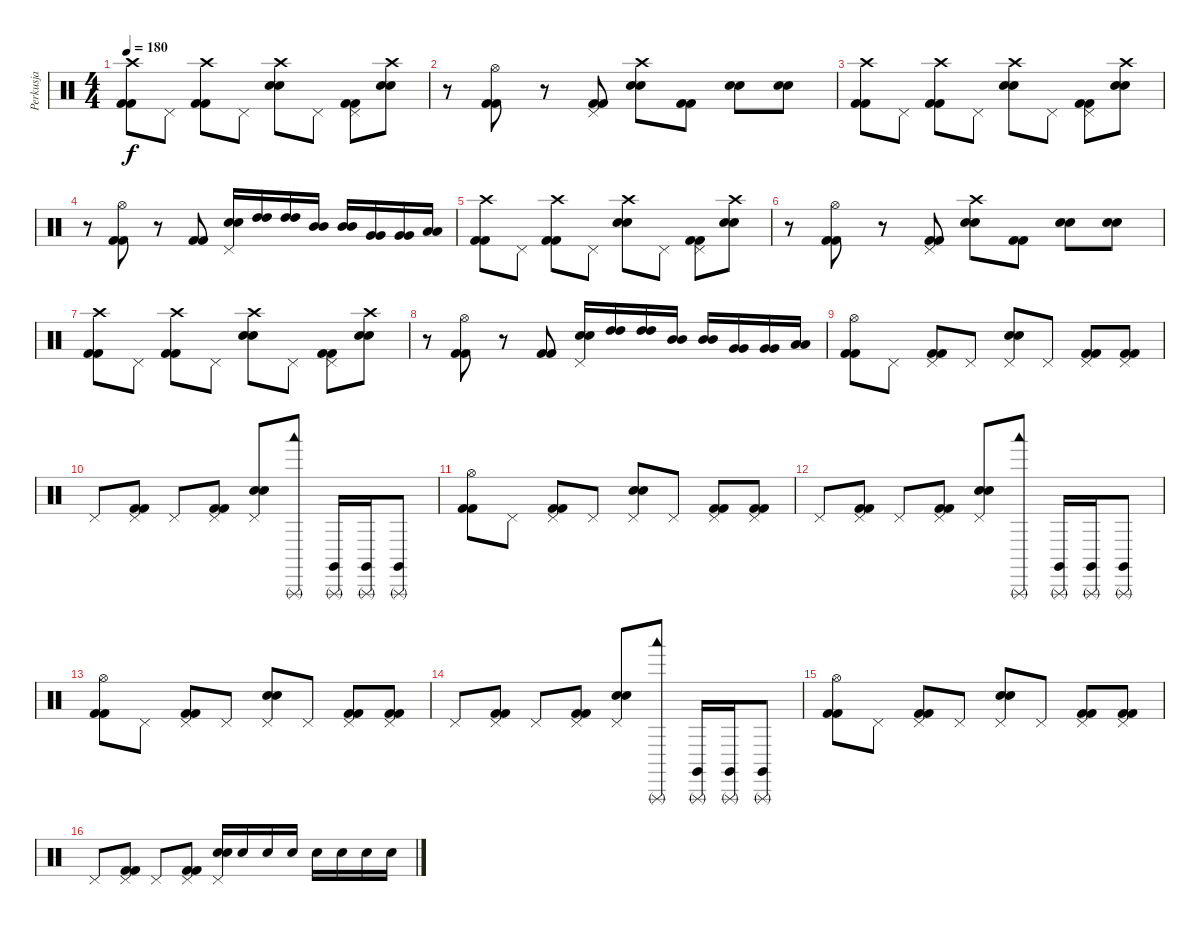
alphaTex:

\track ("Perkusja" "Perkusja") {instrument percussion}
\staff {score}
\articulation defaults
\ts (4 4)
\tempo 180
\clef neutral
\ks c
("Crash high (hit)" "Kick (hit) 2" "Kick (hit) 2").8{dy f} "Pedal Hi-Hat (hit)".8 ("Crash high (hit)" "Kick (hit) 2" "Kick (hit) 2").8 "Pedal Hi-Hat (hit)".8 ("Crash high (hit)" "Snare (hit) 2" "Snare (hit) 2").8 "Pedal Hi-Hat (hit)".8 ("Pedal Hi-Hat (hit)" "Kick (hit) 2" "Kick (hit) 2").8 ("Crash high (hit)" "Snare (hit) 2" "Snare (hit) 2").8 |
r.8 ("Hi-Hat (open)" "Kick (hit) 2" "Kick (hit) 2").8 r.8 ("Pedal Hi-Hat (hit)" "Kick (hit) 2" "Kick (hit) 2").8 ("Crash high (hit)" "Snare (hit) 2" "Snare (hit) 2").8 ("Kick (hit) 2" "Kick (hit) 2").8 ("Snare (hit) 2" "Snare (hit) 2").8 ("Snare (hit) 2" "Snare (hit) 2").8 |
("Crash high (hit)" "Kick (hit) 2" "Kick (hit) 2").8 "Pedal Hi-Hat (hit)".8 ("Crash high (hit)" "Kick (hit) 2" "Kick (hit) 2").8 "Pedal Hi-Hat (hit)".8 ("Crash high (hit)" "Snare (hit) 2" "Snare (hit) 2").8 "Pedal Hi-Hat (hit)".8 ("Pedal Hi-Hat (hit)" "Kick (hit) 2" "Kick (hit) 2").8 ("Crash high (hit)" "Snare (hit) 2" "Snare (hit) 2").8 |
r.8 ("Hi-Hat (open)" "Kick (hit) 2" "Kick (hit) 2").8 r.8 ("Kick (hit) 2" "Kick (hit) 2").8 ("Snare (hit) 2" "Snare (hit) 2" "Pedal Hi-Hat (hit)").16 ("High Tom (hit)" "High Tom (hit)").16 ("High Tom (hit)" "High Tom (hit)").16 ("Mid Tom (hit)" "Mid Tom (hit)").16 ("Mid Tom (hit)" "Mid Tom (hit)").16 ("Very Low Tom (hit)" "Very Low Tom (hit)").16 ("Very Low Tom (hit)" "Very Low Tom (hit)").16 ("Low Floor Tom (hit)" "Low Floor Tom (hit)").16 |
("Crash high (hit)" "Kick (hit) 2" "Kick (hit) 2").8 "Pedal Hi-Hat (hit)".8 ("Crash high (hit)" "Kick (hit) 2" "Kick (hit) 2").8 "Pedal Hi-Hat (hit)".8 ("Crash high (hit)" "Snare (hit) 2" "Snare (hit) 2").8 "Pedal Hi-Hat (hit)".8 ("Pedal Hi-Hat (hit)" "Kick (hit) 2" "Kick (hit) 2").8 ("Crash high (hit)" "Snare (hit) 2" "Snare (hit) 2").8 |
r.8 ("Hi-Hat (open)" "Kick (hit) 2" "Kick (hit) 2").8 r.8 ("Pedal Hi-Hat (hit)" "Kick (hit) 2" "Kick (hit) 2").8 ("Crash high (hit)" "Snare (hit) 2" "Snare (hit) 2").8 ("Kick (hit) 2" "Kick (hit) 2").8 ("Snare (hit) 2" "Snare (hit) 2").8 ("Snare (hit) 2" "Snare (hit) 2").8 |
("Crash high (hit)" "Kick (hit) 2" "Kick (hit) 2").8 "Pedal Hi-Hat (hit)".8 ("Crash high (hit)" "Kick (hit) 2" "Kick (hit) 2").8 "Pedal Hi-Hat (hit)".8 ("Crash high (hit)" "Snare (hit) 2" "Snare (hit) 2").8 "Pedal Hi-Hat (hit)".8 ("Pedal Hi-Hat (hit)" "Kick (hit) 2" "Kick (hit) 2").8 ("Crash high (hit)" "Snare (hit) 2" "Snare (hit) 2").8 |
r.8 ("Hi-Hat (open)" "Kick (hit) 2" "Kick (hit) 2").8 r.8 ("Kick (hit) 2" "Kick (hit) 2").8 ("Snare (hit) 2" "Snare (hit) 2" "Pedal Hi-Hat (hit)").16 ("High Tom (hit)" "High Tom (hit)").16 ("High Tom (hit)" "High Tom (hit)").16 ("Mid Tom (hit)" "Mid Tom (hit)").16 ("Mid Tom (hit)" "Mid Tom (hit)").16 ("Very Low Tom (hit)" "Very Low Tom (hit)").16 ("Very Low Tom (hit)" "Very Low Tom (hit)").16 ("Low Floor Tom (hit)" "Low Floor Tom (hit)").16 |
("Hi-Hat (open)" "Kick (hit) 2" "Kick (hit) 2").8 "Pedal Hi-Hat (hit)".8 ("Pedal Hi-Hat (hit)" "Kick (hit) 2" "Kick (hit) 2").8 "Pedal Hi-Hat (hit)".8 ("Pedal Hi-Hat (hit)" "Snare (hit) 2" "Snare (hit) 2").8 "Pedal Hi-Hat (hit)".8 ("Pedal Hi-Hat (hit)" "Kick (hit) 2" "Kick (hit) 2").8 ("Pedal Hi-Hat (hit)" "Kick (hit) 2" "Kick (hit) 2").8 |
"Pedal Hi-Hat (hit)".8 ("Pedal Hi-Hat (hit)" "Kick (hit) 2" "Kick (hit) 2").8 "Pedal Hi-Hat (hit)".8 ("Pedal Hi-Hat (hit)" "Kick (hit) 2" "Kick (hit) 2").8 ("Pedal Hi-Hat (hit)" "Snare (hit) 2" "Snare (hit) 2").8 ("Triangle (rnute)" "Woodblock low (hit)").8 ("Triangle (rnute)" "Claves (hit)").16 ("Triangle (rnute)" "Claves (hit)").16 ("Triangle (rnute)" "Claves (hit)").8 |
("Hi-Hat (open)" "Kick (hit) 2" "Kick (hit) 2").8 "Pedal Hi-Hat (hit)".8 ("Pedal Hi-Hat (hit)" "Kick (hit) 2" "Kick (hit) 2").8 "Pedal Hi-Hat (hit)".8 ("Pedal Hi-Hat (hit)" "Snare (hit) 2" "Snare (hit) 2").8 "Pedal Hi-Hat (hit)".8 ("Pedal Hi-Hat (hit)" "Kick (hit) 2" "Kick (hit) 2").8 ("Pedal Hi-Hat (hit)" "Kick (hit) 2" "Kick (hit) 2").8 |
"Pedal Hi-Hat (hit)".8 ("Pedal Hi-Hat (hit)" "Kick (hit) 2" "Kick (hit) 2").8 "Pedal Hi-Hat (hit)".8 ("Pedal Hi-Hat (hit)" "Kick (hit) 2" "Kick (hit) 2").8 ("Pedal Hi-Hat (hit)" "Snare (hit) 2" "Snare (hit) 2").8 ("Triangle (rnute)" "Woodblock low (hit)").8 ("Triangle (rnute)" "Claves (hit)").16 ("Triangle (rnute)" "Claves (hit)").16 ("Triangle (rnute)" "Claves (hit)").8 |
("Hi-Hat (open)" "Kick (hit) 2" "Kick (hit) 2").8 "Pedal Hi-Hat (hit)".8 ("Pedal Hi-Hat (hit)" "Kick (hit) 2" "Kick (hit) 2").8 "Pedal Hi-Hat (hit)".8 ("Pedal Hi-Hat (hit)" "Snare (hit) 2" "Snare (hit) 2").8 "Pedal Hi-Hat (hit)".8 ("Pedal Hi-Hat (hit)" "Kick (hit) 2" "Kick (hit) 2").8 ("Pedal Hi-Hat (hit)" "Kick (hit) 2" "Kick (hit) 2").8 |
"Pedal Hi-Hat (hit)".8 ("Pedal Hi-Hat (hit)" "Kick (hit) 2" "Kick (hit) 2").8 "Pedal Hi-Hat (hit)".8 ("Pedal Hi-Hat (hit)" "Kick (hit) 2" "Kick (hit) 2").8 ("Pedal Hi-Hat (hit)" "Snare (hit) 2" "Snare (hit) 2").8 ("Triangle (rnute)" "Woodblock low (hit)").8 ("Triangle (rnute)" "Claves (hit)").16 ("Triangle (rnute)" "Claves (hit)").16 ("Triangle (rnute)" "Claves (hit)").8 |
("Hi-Hat (open)" "Kick (hit) 2" "Kick (hit) 2").8 "Pedal Hi-Hat (hit)".8 ("Pedal Hi-Hat (hit)" "Kick (hit) 2" "Kick (hit) 2").8 "Pedal Hi-Hat (hit)".8 ("Pedal Hi-Hat (hit)" "Snare (hit) 2" "Snare (hit) 2").8 "Pedal Hi-Hat (hit)".8 ("Pedal Hi-Hat (hit)" "Kick (hit) 2" "Kick (hit) 2").8 ("Pedal Hi-Hat (hit)" "Kick (hit) 2" "Kick (hit) 2").8 |
"Pedal Hi-Hat (hit)".8 ("Pedal Hi-Hat (hit)" "Kick (hit) 2" "Kick (hit) 2").8 "Pedal Hi-Hat (hit)".8 ("Pedal Hi-Hat (hit)" "Kick (hit) 2" "Kick (hit) 2").8 ("Pedal Hi-Hat (hit)" "Snare (hit) 2" "Snare (hit) 2").16 "Snare (hit) 2".16 "Snare (hit) 2".16 "Snare (hit) 2".16 "Snare (hit) 2".16 "Snare (hit) 2".16 "Snare (hit) 2".16 "Snare (hit) 2".16
